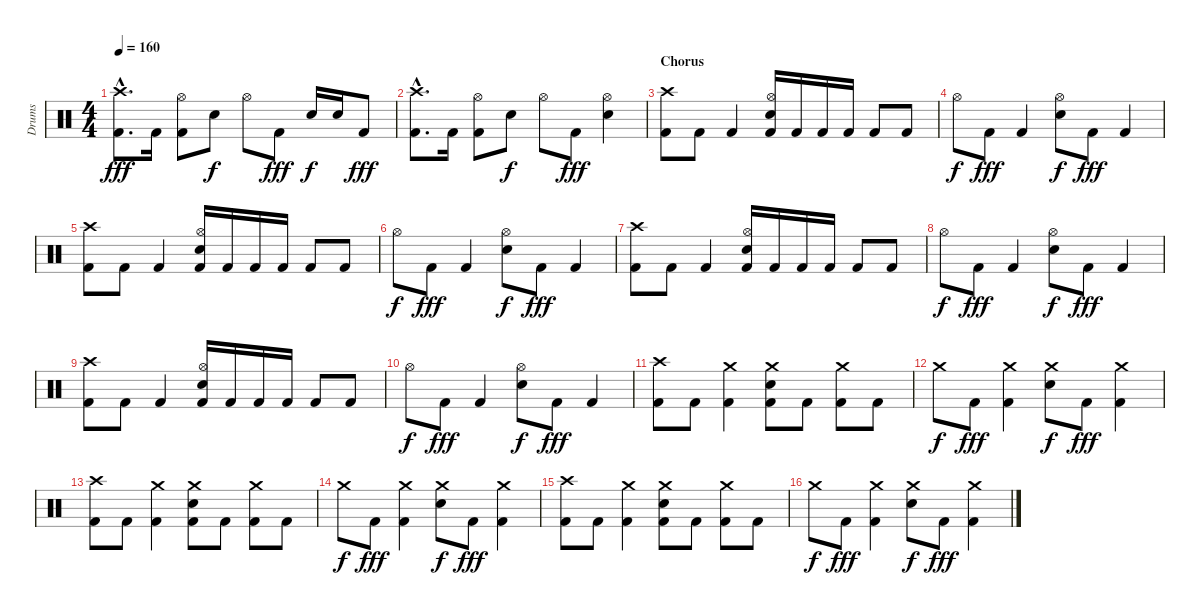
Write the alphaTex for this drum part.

\track ("Drums" "Drums") {instrument percussion}
\staff {score}
\articulation defaults
\ts (4 4)
\tempo 160
\clef neutral
\ks c
("Crash high (hit)"{hac} "Kick (hit) 2"{hac}).8{d dy fff} "Kick (hit) 2".16 ("Hi-Hat (open)" "Kick (hit) 2").8 "Snare (hit) 2".8{dy f} "Hi-Hat (open)".8 "Kick (hit) 2".8{dy fff} "Snare (hit) 2".16{dy f} "Snare (hit) 2".16 "Kick (hit) 2".8{dy fff} |
("Crash high (hit)"{hac} "Kick (hit) 2"{hac}).8{d} "Kick (hit) 2".16 ("Hi-Hat (open)" "Kick (hit) 2").8 "Snare (hit) 2".8{dy f} "Hi-Hat (open)".8 "Kick (hit) 2".8{dy fff} ("Hi-Hat (open)" "Snare (hit) 2").4 |
\section ("" "Chorus")
("Crash high (hit)" "Kick (hit) 2").8 "Kick (hit) 2".8 "Kick (hit) 2".4 ("Hi-Hat (open)" "Snare (hit) 2" "Kick (hit) 2").16 "Kick (hit) 2".16 "Kick (hit) 2".16 "Kick (hit) 2".16 "Kick (hit) 2".8 "Kick (hit) 2".8 |
"Hi-Hat (open)".8{dy f} "Kick (hit) 2".8{dy fff} "Kick (hit) 2".4 ("Hi-Hat (open)" "Snare (hit) 2").8{dy f} "Kick (hit) 2".8{dy fff} "Kick (hit) 2".4 |
("Crash high (hit)" "Kick (hit) 2").8 "Kick (hit) 2".8 "Kick (hit) 2".4 ("Hi-Hat (open)" "Snare (hit) 2" "Kick (hit) 2").16 "Kick (hit) 2".16 "Kick (hit) 2".16 "Kick (hit) 2".16 "Kick (hit) 2".8 "Kick (hit) 2".8 |
"Hi-Hat (open)".8{dy f} "Kick (hit) 2".8{dy fff} "Kick (hit) 2".4 ("Hi-Hat (open)" "Snare (hit) 2").8{dy f} "Kick (hit) 2".8{dy fff} "Kick (hit) 2".4 |
("Crash high (hit)" "Kick (hit) 2").8 "Kick (hit) 2".8 "Kick (hit) 2".4 ("Hi-Hat (open)" "Snare (hit) 2" "Kick (hit) 2").16 "Kick (hit) 2".16 "Kick (hit) 2".16 "Kick (hit) 2".16 "Kick (hit) 2".8 "Kick (hit) 2".8 |
"Hi-Hat (open)".8{dy f} "Kick (hit) 2".8{dy fff} "Kick (hit) 2".4 ("Hi-Hat (open)" "Snare (hit) 2").8{dy f} "Kick (hit) 2".8{dy fff} "Kick (hit) 2".4 |
("Crash high (hit)" "Kick (hit) 2").8 "Kick (hit) 2".8 "Kick (hit) 2".4 ("Hi-Hat (open)" "Snare (hit) 2" "Kick (hit) 2").16 "Kick (hit) 2".16 "Kick (hit) 2".16 "Kick (hit) 2".16 "Kick (hit) 2".8 "Kick (hit) 2".8 |
"Hi-Hat (open)".8{dy f} "Kick (hit) 2".8{dy fff} "Kick (hit) 2".4 ("Hi-Hat (open)" "Snare (hit) 2").8{dy f} "Kick (hit) 2".8{dy fff} "Kick (hit) 2".4 |
("Crash high (hit)" "Kick (hit) 2").8 "Kick (hit) 2".8 ("Crash medium (hit)" "Kick (hit) 2").4 ("Crash medium (hit)" "Snare (hit) 2" "Kick (hit) 2").8 "Kick (hit) 2".8 ("Crash medium (hit)" "Kick (hit) 2").8 "Kick (hit) 2".8 |
"Crash medium (hit)".8{dy f} "Kick (hit) 2".8{dy fff} ("Crash medium (hit)" "Kick (hit) 2").4 ("Crash medium (hit)" "Snare (hit) 2").8{dy f} "Kick (hit) 2".8{dy fff} ("Crash medium (hit)" "Kick (hit) 2").4 |
("Crash high (hit)" "Kick (hit) 2").8 "Kick (hit) 2".8 ("Crash medium (hit)" "Kick (hit) 2").4 ("Crash medium (hit)" "Snare (hit) 2" "Kick (hit) 2").8 "Kick (hit) 2".8 ("Crash medium (hit)" "Kick (hit) 2").8 "Kick (hit) 2".8 |
"Crash medium (hit)".8{dy f} "Kick (hit) 2".8{dy fff} ("Crash medium (hit)" "Kick (hit) 2").4 ("Crash medium (hit)" "Snare (hit) 2").8{dy f} "Kick (hit) 2".8{dy fff} ("Crash medium (hit)" "Kick (hit) 2").4 |
("Crash high (hit)" "Kick (hit) 2").8 "Kick (hit) 2".8 ("Crash medium (hit)" "Kick (hit) 2").4 ("Crash medium (hit)" "Snare (hit) 2" "Kick (hit) 2").8 "Kick (hit) 2".8 ("Crash medium (hit)" "Kick (hit) 2").8 "Kick (hit) 2".8 |
"Crash medium (hit)".8{dy f} "Kick (hit) 2".8{dy fff} ("Crash medium (hit)" "Kick (hit) 2").4 ("Crash medium (hit)" "Snare (hit) 2").8{dy f} "Kick (hit) 2".8{dy fff} ("Crash medium (hit)" "Kick (hit) 2").4
